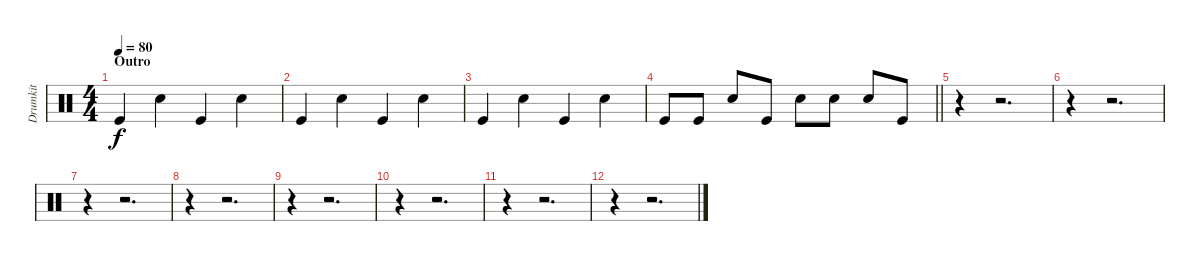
\track ("Drumkit" "Drumkit") {instrument percussion}
\staff {score}
\articulation defaults
\ts (4 4)
\section ("" "Outro")
\tempo 80
\clef neutral
\ks c "Kick (hit)".4{dy f} "Snare (hit) 2".4 "Kick (hit)".4 "Snare (hit) 2".4
|
"Kick (hit)".4 "Snare (hit) 2".4 "Kick (hit)".4 "Snare (hit) 2".4 |
"Kick (hit)".4 "Snare (hit) 2".4 "Kick (hit)".4 "Snare (hit) 2".4 |
\barLineRight lightlight "Kick (hit)".8 "Kick (hit)".8 "Snare (hit) 2".8 "Kick (hit)".8 "Snare (hit) 2".8 "Snare (hit) 2".8 "Snare (hit) 2".8 "Kick (hit)".8
|
r.4 r.2{d} |
r.4 r.2{d} |
r.4 r.2{d} |
r.4 r.2{d} |
r.4 r.2{d} |
r.4 r.2{d} |
r.4 r.2{d} |
r.4 r.2{d}
